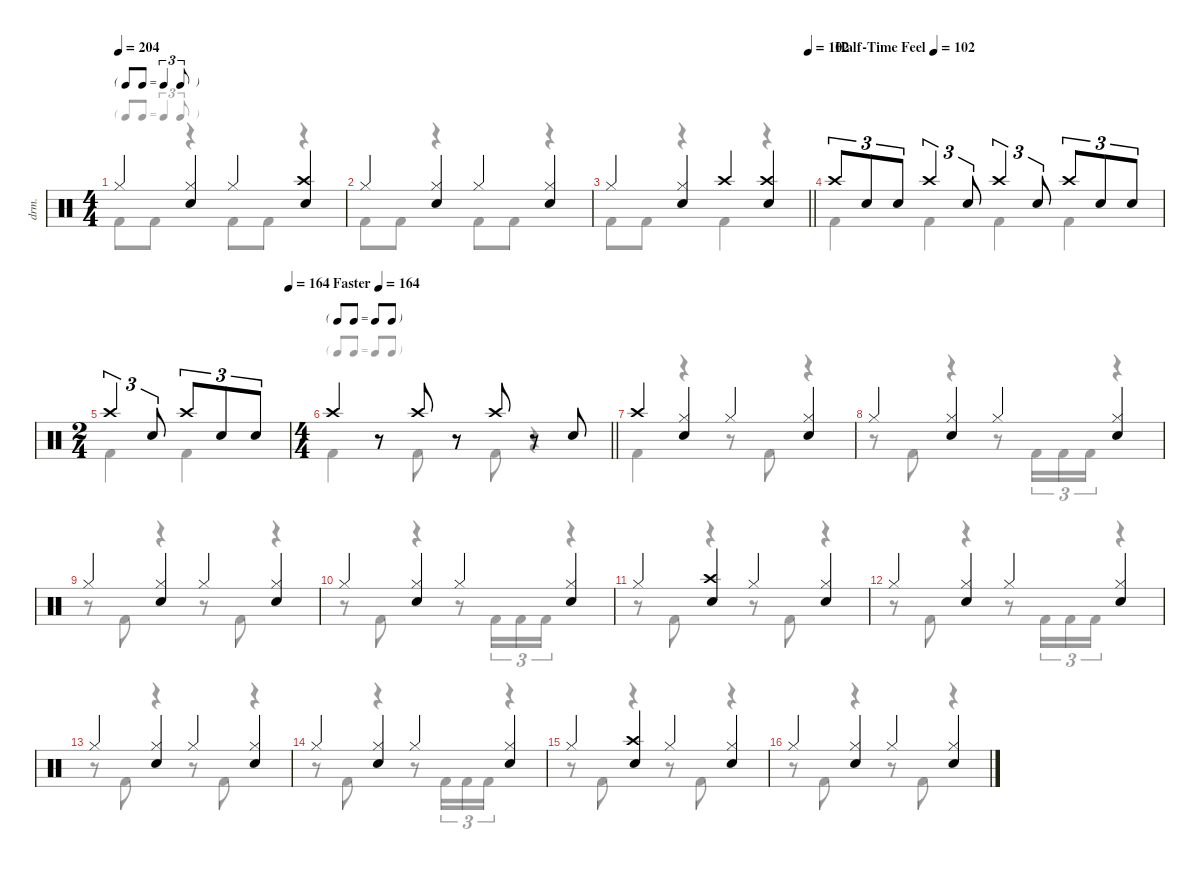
\defaultSystemsLayout 4
\hideDynamics
\bracketExtendMode nobrackets
\otherSystemsTrackNameOrientation horizontal
\track ("Lars Ulrich" "drm.") {defaultSystemsLayout 8 instrument percussion}
\staff {score}
\articulation defaults
\voice
\ts (4 4)
\tf triplet8th
\tempo 204
\clef neutral
\ks aminor "Hi-Hat (closed)".4{dy f beam Up}
("Hi-Hat (closed)" "Snare (hit) 2").4{beam Up} "Hi-Hat (closed)".4{beam Up} ("Crash high (hit)" "Snare (hit) 2").4{beam Up} |
"Hi-Hat (closed)".4{beam Up} ("Hi-Hat (closed)" "Snare (hit) 2").4{beam Up} "Hi-Hat (closed)".4{beam Up} ("Hi-Hat (closed)" "Snare (hit) 2").4{beam Up} |
\tempo (102 1)
\barLineRight lightlight "Hi-Hat (closed)".4{beam Up}
("Hi-Hat (closed)" "Snare (hit) 2").4{beam Up} "Crash high (hit)".4{beam Up} ("Crash high (hit)" "Snare (hit) 2").4{beam Up} |
\tempo (102 "Half-Time Feel")
"Crash high (hit)".8{tu (3 2) beam Up} "Snare (hit) 2".8{tu (3 2) beam Up} "Snare (hit) 2".8{tu (3 2) beam Up} "Crash high (hit)".4{tu (3 2) beam Up} "Snare (hit) 2".8{tu (3 2) beam Up} "Crash high (hit)".4{tu (3 2) beam Up} "Snare (hit) 2".8{tu (3 2) beam Up} "Crash high (hit)".8{tu (3 2) beam Up} "Snare (hit) 2".8{tu (3 2) beam Up} "Snare (hit) 2".8{tu (3 2) beam Up} |
\ts (2 4)
\beaming (8 2 2)
\tempo (164 1)
"Crash high (hit)".4{tu (3 2) beam Up} "Snare (hit) 2".8{tu (3 2) beam Up} "Crash high (hit)".8{tu (3 2) beam Up} "Snare (hit) 2".8{tu (3 2) beam Up} "Snare (hit) 2".8{tu (3 2) beam Up} |
\ts (4 4)
\beaming (8 2 2 2 2)
\tf none
\tempo (164 "Faster")
\barLineRight lightlight "Crash high (hit)".4{beam Up}
r.8{beam Up} "Crash high (hit)".8{beam Up} r.8{beam Up} "Crash high (hit)".8{beam Up} r.8{beam Up} "Snare (hit) 2".8{beam Up} |
"Crash high (hit)".4{beam Up} ("Hi-Hat (closed)" "Snare (hit) 2").4{beam Up} "Hi-Hat (closed)".4{beam Up} ("Hi-Hat (closed)" "Snare (hit) 2").4{beam Up} |
"Hi-Hat (closed)".4{beam Up} ("Hi-Hat (closed)" "Snare (hit) 2").4{beam Up} "Hi-Hat (closed)".4{beam Up} ("Hi-Hat (closed)" "Snare (hit) 2").4{beam Up} |
"Hi-Hat (closed)".4{beam Up} ("Hi-Hat (closed)" "Snare (hit) 2").4{beam Up} "Hi-Hat (closed)".4{beam Up} ("Hi-Hat (closed)" "Snare (hit) 2").4{beam Up} |
"Hi-Hat (closed)".4{beam Up} ("Hi-Hat (closed)" "Snare (hit) 2").4{beam Up} "Hi-Hat (closed)".4{beam Up} ("Hi-Hat (closed)" "Snare (hit) 2").4{beam Up} |
"Hi-Hat (closed)".4{beam Up} ("Crash high (hit)" "Snare (hit) 2").4{beam Up} "Hi-Hat (closed)".4{beam Up} ("Hi-Hat (closed)" "Snare (hit) 2").4{beam Up} |
"Hi-Hat (closed)".4{beam Up} ("Hi-Hat (closed)" "Snare (hit) 2").4{beam Up} "Hi-Hat (closed)".4{beam Up} ("Hi-Hat (closed)" "Snare (hit) 2").4{beam Up} |
"Hi-Hat (closed)".4{beam Up} ("Hi-Hat (closed)" "Snare (hit) 2").4{beam Up} "Hi-Hat (closed)".4{beam Up} ("Hi-Hat (closed)" "Snare (hit) 2").4{beam Up} |
"Hi-Hat (closed)".4{beam Up} ("Hi-Hat (closed)" "Snare (hit) 2").4{beam Up} "Hi-Hat (closed)".4{beam Up} ("Hi-Hat (closed)" "Snare (hit) 2").4{beam Up} |
"Hi-Hat (closed)".4{beam Up} ("Crash high (hit)" "Snare (hit) 2").4{beam Up} "Hi-Hat (closed)".4{beam Up} ("Hi-Hat (closed)" "Snare (hit) 2").4{beam Up} |
"Hi-Hat (closed)".4{beam Up} ("Hi-Hat (closed)" "Snare (hit) 2").4{beam Up} "Hi-Hat (closed)".4{beam Up} ("Hi-Hat (closed)" "Snare (hit) 2").4{beam Up}
\voice
\clef neutral
\ottava regular
\simile none
\ks aminor "Kick (hit) 2".8{dy f beam Down} "Kick (hit) 2".8{beam Down}
r.4{beam Down} "Kick (hit) 2".8{beam Down} "Kick (hit) 2".8{beam Down} r.4{beam Down} |
"Kick (hit) 2".8{beam Down} "Kick (hit) 2".8{beam Down} r.4{beam Down} "Kick (hit) 2".8{beam Down} "Kick (hit) 2".8{beam Down} r.4{beam Down} |
\barLineRight lightlight "Kick (hit) 2".8{beam Down} "Kick (hit) 2".8{beam Down}
r.4{beam Down} "Kick (hit) 2".4{beam Down} r.4{beam Down} |
"Kick (hit) 2".4{beam Down} "Kick (hit) 2".4{beam Down} "Kick (hit) 2".4{beam Down} "Kick (hit) 2".4{beam Down} |
"Kick (hit) 2".4{beam Down} "Kick (hit) 2".4{beam Down} |
\barLineRight lightlight "Kick (hit) 2".4{beam Down}
r.8{beam Down} "Kick (hit) 2".8{beam Down} r.8{beam Down} "Kick (hit) 2".8{beam Down} r.4{beam Down} |
"Kick (hit) 2".4{beam Down} r.4{beam Down} r.8{beam Down} "Kick (hit) 2".8{beam Down} r.4{beam Down} |
r.8{beam Down} "Kick (hit) 2".8{beam Down} r.4{beam Down} r.8{beam Down} "Kick (hit) 2".16{tu (3 2) beam Down} "Kick (hit) 2".16{tu (3 2) beam Down} "Kick (hit) 2".16{tu (3 2) beam Down} r.4{beam Down} |
r.8{beam Down} "Kick (hit) 2".8{beam Down} r.4{beam Down} r.8{beam Down} "Kick (hit) 2".8{beam Down} r.4{beam Down} |
r.8{beam Down} "Kick (hit) 2".8{beam Down} r.4{beam Down} r.8{beam Down} "Kick (hit) 2".16{tu (3 2) beam Down} "Kick (hit) 2".16{tu (3 2) beam Down} "Kick (hit) 2".16{tu (3 2) beam Down} r.4{beam Down} |
r.8{beam Down} "Kick (hit) 2".8{beam Down} r.4{beam Down} r.8{beam Down} "Kick (hit) 2".8{beam Down} r.4{beam Down} |
r.8{beam Down} "Kick (hit) 2".8{beam Down} r.4{beam Down} r.8{beam Down} "Kick (hit) 2".16{tu (3 2) beam Down} "Kick (hit) 2".16{tu (3 2) beam Down} "Kick (hit) 2".16{tu (3 2) beam Down} r.4{beam Down} |
r.8{beam Down} "Kick (hit) 2".8{beam Down} r.4{beam Down} r.8{beam Down} "Kick (hit) 2".8{beam Down} r.4{beam Down} |
r.8{beam Down} "Kick (hit) 2".8{beam Down} r.4{beam Down} r.8{beam Down} "Kick (hit) 2".16{tu (3 2) beam Down} "Kick (hit) 2".16{tu (3 2) beam Down} "Kick (hit) 2".16{tu (3 2) beam Down} r.4{beam Down} |
r.8{beam Down} "Kick (hit) 2".8{beam Down} r.4{beam Down} r.8{beam Down} "Kick (hit) 2".8{beam Down} r.4{beam Down} |
r.8{beam Down} "Kick (hit) 2".8{beam Down} r.4{beam Down} r.8{beam Down} "Kick (hit) 2".8{beam Down} r.4{beam Down}
